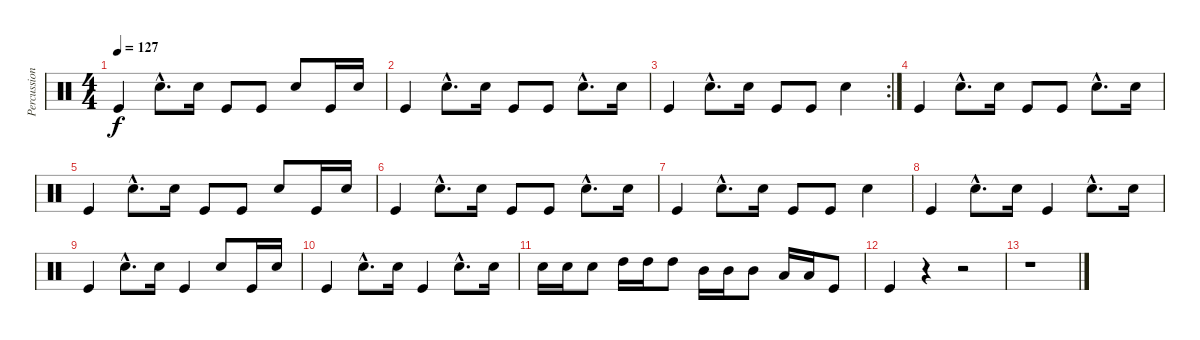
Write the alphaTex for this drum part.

\track ("Percussions" "Percussion") {instrument percussion}
\staff {score}
\articulation defaults
\ts (4 4)
\tempo 127
\clef neutral
\ks c "Kick (hit)".4{dy f} "Electric Snare (hit)"{hac}.8{d} "Electric Snare (hit)".16 "Kick (hit)".8 "Kick (hit)".8 "Electric Snare (hit)".8 "Kick (hit)".16 "Electric Snare (hit)".16
|
"Kick (hit)".4 "Electric Snare (hit)"{hac}.8{d} "Electric Snare (hit)".16 "Kick (hit)".8 "Kick (hit)".8 "Electric Snare (hit)"{hac}.8{d} "Electric Snare (hit)".16 |
\rc 2 "Kick (hit)".4 "Electric Snare (hit)"{hac}.8{d} "Electric Snare (hit)".16 "Kick (hit)".8 "Kick (hit)".8 "Electric Snare (hit)".4
|
"Kick (hit)".4 "Electric Snare (hit)"{hac}.8{d} "Electric Snare (hit)".16 "Kick (hit)".8 "Kick (hit)".8 "Electric Snare (hit)"{hac}.8{d} "Electric Snare (hit)".16 |
"Kick (hit)".4 "Electric Snare (hit)"{hac}.8{d} "Electric Snare (hit)".16 "Kick (hit)".8 "Kick (hit)".8 "Electric Snare (hit)".8 "Kick (hit)".16 "Electric Snare (hit)".16 |
"Kick (hit)".4 "Electric Snare (hit)"{hac}.8{d} "Electric Snare (hit)".16 "Kick (hit)".8 "Kick (hit)".8 "Electric Snare (hit)"{hac}.8{d} "Electric Snare (hit)".16 |
"Kick (hit)".4 "Electric Snare (hit)"{hac}.8{d} "Electric Snare (hit)".16 "Kick (hit)".8 "Kick (hit)".8 "Electric Snare (hit)".4 |
"Kick (hit)".4 "Electric Snare (hit)"{hac}.8{d} "Electric Snare (hit)".16 "Kick (hit)".4 "Electric Snare (hit)"{hac}.8{d} "Electric Snare (hit)".16 |
"Kick (hit)".4 "Electric Snare (hit)"{hac}.8{d} "Electric Snare (hit)".16 "Kick (hit)".4 "Electric Snare (hit)".8 "Kick (hit)".16 "Electric Snare (hit)".16 |
"Kick (hit)".4 "Electric Snare (hit)"{hac}.8{d} "Electric Snare (hit)".16 "Kick (hit)".4 "Electric Snare (hit)"{hac}.8{d} "Electric Snare (hit)".16 |
"Electric Snare (hit)".16 "Electric Snare (hit)".16 "Electric Snare (hit)".8 "High Tom (hit)".16 "High Tom (hit)".16 "High Tom (hit)".8 "Mid Tom (hit)".16 "Mid Tom (hit)".16 "Mid Tom (hit)".8 "Low Tom (hit)".16 "Low Tom (hit)".16 "Kick (hit)".8 |
"Kick (hit)".4 r.4 r.2 |
r.1
